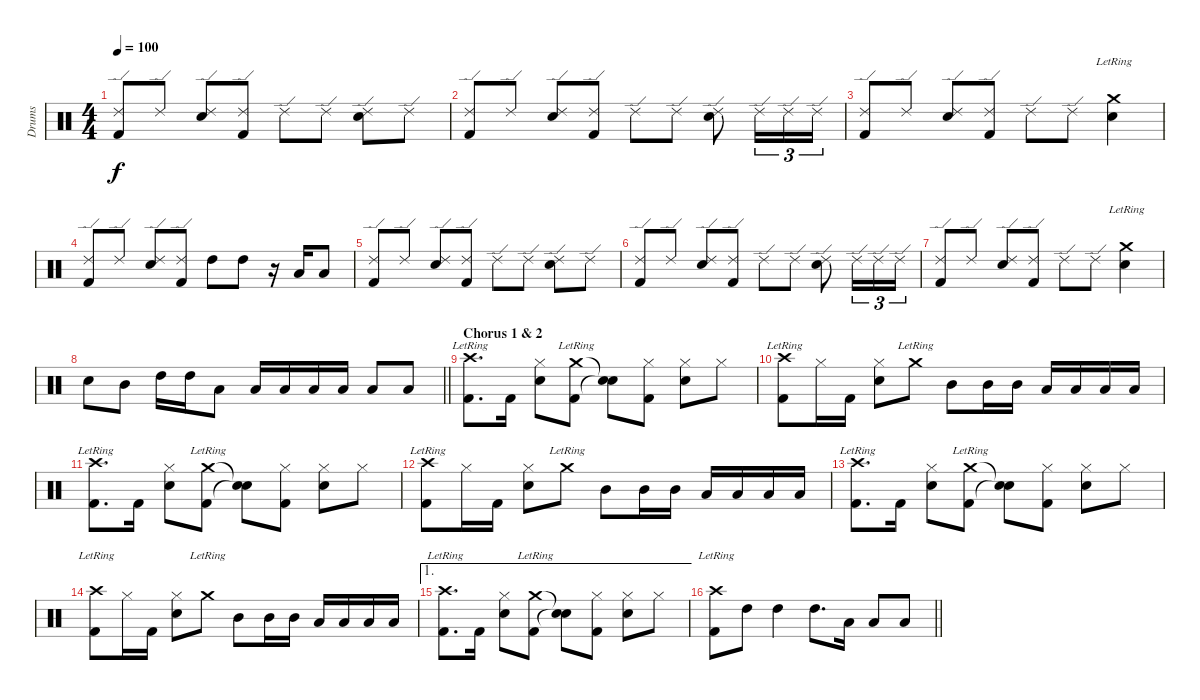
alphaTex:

\track ("Drums" "Drums") {instrument percussion}
\staff {score}
\articulation defaults
\ts (4 4)
\tempo 100
\clef neutral
\ks c
("Ride (edge) 2" "Kick (hit) 2").8{dy f} "Ride (edge) 2".8 ("Ride (edge) 2" "Snare (hit) 2").8 ("Ride (edge) 2" "Kick (hit) 2").8 "Ride (edge) 2".8 "Ride (edge) 2".8 ("Ride (edge) 2" "Snare (hit) 2").8 "Ride (edge) 2".8 |
("Ride (edge) 2" "Kick (hit) 2").8 "Ride (edge) 2".8 ("Ride (edge) 2" "Snare (hit) 2").8 ("Ride (edge) 2" "Kick (hit) 2").8 "Ride (edge) 2".8 "Ride (edge) 2".8 ("Ride (edge) 2" "Snare (hit) 2").8 "Ride (edge) 2".16{tu (3 2)} "Ride (edge) 2".16{tu (3 2)} "Ride (edge) 2".16{tu (3 2)} |
("Ride (edge) 2" "Kick (hit) 2").8 "Ride (edge) 2".8 ("Ride (edge) 2" "Snare (hit) 2").8 ("Ride (edge) 2" "Kick (hit) 2").8 "Ride (edge) 2".8 "Ride (edge) 2".8 ("Crash medium (hit)"{lr} "Snare (hit) 2").4 |
("Ride (edge) 2" "Kick (hit) 2").8 "Ride (edge) 2".8 ("Ride (edge) 2" "Snare (hit) 2").8 ("Ride (edge) 2" "Kick (hit) 2").8 "High Tom (hit)".8 "High Tom (hit)".8 r.16 "Low Tom (hit)".16 "Low Tom (hit)".8 |
("Ride (edge) 2" "Kick (hit) 2").8 "Ride (edge) 2".8 ("Ride (edge) 2" "Snare (hit) 2").8 ("Ride (edge) 2" "Kick (hit) 2").8 "Ride (edge) 2".8 "Ride (edge) 2".8 ("Ride (edge) 2" "Snare (hit) 2").8 "Ride (edge) 2".8 |
("Ride (edge) 2" "Kick (hit) 2").8 "Ride (edge) 2".8 ("Ride (edge) 2" "Snare (hit) 2").8 ("Ride (edge) 2" "Kick (hit) 2").8 "Ride (edge) 2".8 "Ride (edge) 2".8 ("Ride (edge) 2" "Snare (hit) 2").8 "Ride (edge) 2".16{tu (3 2)} "Ride (edge) 2".16{tu (3 2)} "Ride (edge) 2".16{tu (3 2)} |
("Ride (edge) 2" "Kick (hit) 2").8 "Ride (edge) 2".8 ("Ride (edge) 2" "Snare (hit) 2").8 ("Ride (edge) 2" "Kick (hit) 2").8 "Ride (edge) 2".8 "Ride (edge) 2".8 ("Crash medium (hit)"{lr} "Snare (hit) 2").4 |
\barLineRight lightlight "Snare (hit) 2".8 "Mid Tom (hit)".8 "High Tom (hit)".16 "High Tom (hit)".16 "Low Tom (hit)".8 "Low Tom (hit)".16 "Low Tom (hit)".16 "Low Tom (hit)".16 "Low Tom (hit)".16 "Low Tom (hit)".8 "Low Tom (hit)".8
|
\section ("" "Chorus 1 & 2")
("Crash high (hit)"{lr} "Kick (hit) 2").8{d} "Kick (hit) 2".16 ("Hi-Hat (closed)" "Snare (hit) 2").8 ("Crash medium (hit)"{lr} "Kick (hit) 2").8 ("Snare (hit)"{t} "Snare (hit)"{t}).8 ("Hi-Hat (closed)" "Kick (hit) 2").8 ("Hi-Hat (closed)" "Snare (hit) 2").8 "Hi-Hat (closed)".8 |
("Crash high (hit)"{lr} "Kick (hit) 2").8 "Hi-Hat (closed)".16 "Kick (hit) 2".16 ("Hi-Hat (closed)" "Snare (hit) 2").8 "Crash medium (hit)"{lr}.8 "Mid Tom (hit)".8 "Mid Tom (hit)".16 "Mid Tom (hit)".16 "Low Tom (hit)".16 "Low Tom (hit)".16 "Low Tom (hit)".16 "Low Tom (hit)".16 |
("Crash high (hit)"{lr} "Kick (hit) 2").8{d} "Kick (hit) 2".16 ("Hi-Hat (closed)" "Snare (hit) 2").8 ("Crash medium (hit)"{lr} "Kick (hit) 2").8 ("Snare (hit)"{t} "Snare (hit)"{t}).8 ("Hi-Hat (closed)" "Kick (hit) 2").8 ("Hi-Hat (closed)" "Snare (hit) 2").8 "Hi-Hat (closed)".8 |
("Crash high (hit)"{lr} "Kick (hit) 2").8 "Hi-Hat (closed)".16 "Kick (hit) 2".16 ("Hi-Hat (closed)" "Snare (hit) 2").8 "Crash medium (hit)"{lr}.8 "Mid Tom (hit)".8 "Mid Tom (hit)".16 "Mid Tom (hit)".16 "Low Tom (hit)".16 "Low Tom (hit)".16 "Low Tom (hit)".16 "Low Tom (hit)".16 |
("Crash high (hit)"{lr} "Kick (hit) 2").8{d} "Kick (hit) 2".16 ("Hi-Hat (closed)" "Snare (hit) 2").8 ("Crash medium (hit)"{lr} "Kick (hit) 2").8 ("Snare (hit)"{t} "Snare (hit)"{t}).8 ("Hi-Hat (closed)" "Kick (hit) 2").8 ("Hi-Hat (closed)" "Snare (hit) 2").8 "Hi-Hat (closed)".8 |
("Crash high (hit)"{lr} "Kick (hit) 2").8 "Hi-Hat (closed)".16 "Kick (hit) 2".16 ("Hi-Hat (closed)" "Snare (hit) 2").8 "Crash medium (hit)"{lr}.8 "Mid Tom (hit)".8 "Mid Tom (hit)".16 "Mid Tom (hit)".16 "Low Tom (hit)".16 "Low Tom (hit)".16 "Low Tom (hit)".16 "Low Tom (hit)".16 |
\ae 1
("Crash high (hit)"{lr} "Kick (hit) 2").8{d} "Kick (hit) 2".16 ("Hi-Hat (closed)" "Snare (hit) 2").8 ("Crash medium (hit)"{lr} "Kick (hit) 2").8 ("Snare (hit)"{t} "Snare (hit)"{t}).8 ("Hi-Hat (closed)" "Kick (hit) 2").8 ("Hi-Hat (closed)" "Snare (hit) 2").8 "Hi-Hat (closed)".8 |
\barLineRight lightlight
("Crash high (hit)"{lr} "Kick (hit) 2").8 "High Tom (hit)".8 "High Tom (hit)".4 "High Tom (hit)".8{d} "Low Tom (hit)".16 "Low Tom (hit)".8 "Low Tom (hit)".8
